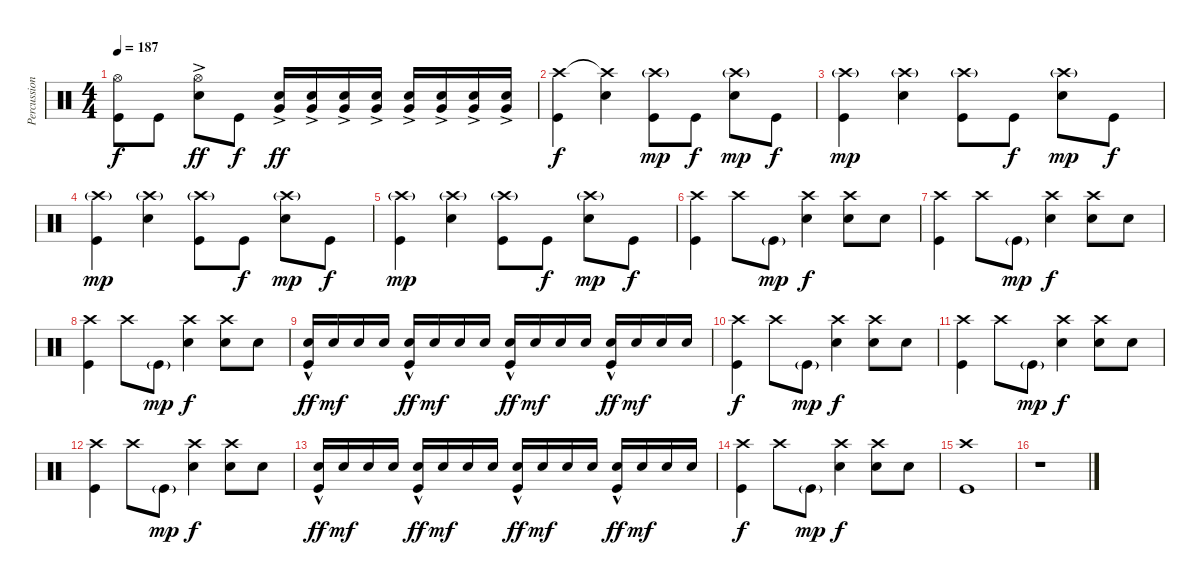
\track ("Percussions" "Percussion") {instrument percussion}
\staff {score}
\articulation defaults
\ts (4 4)
\tempo 187
\clef neutral
\ks c
("Kick (hit)" "Hi-Hat (open)").8{dy f} "Kick (hit)".8 ("Electric Snare (hit)"{ac} "Hi-Hat (open)").8{dy ff} "Kick (hit)".8{dy f} ("Very Low Tom (hit)"{ac} "Electric Snare (hit)").16{dy ff} ("Very Low Tom (hit)"{ac} "Electric Snare (hit)").16 ("Very Low Tom (hit)"{ac} "Electric Snare (hit)").16 ("Very Low Tom (hit)"{ac} "Electric Snare (hit)").16 ("Very Low Tom (hit)"{ac} "Electric Snare (hit)").16 ("Very Low Tom (hit)"{ac} "Electric Snare (hit)").16 ("Very Low Tom (hit)"{ac} "Electric Snare (hit)").16 ("Very Low Tom (hit)"{ac} "Electric Snare (hit)").16 |
("Kick (hit)" "Crash high (hit)").4{dy f} ("Electric Snare (hit)" "Crash high (hit)"{t}).4 ("Kick (hit)" "Crash high (hit)"{g}).8{dy mp} "Kick (hit)".8{dy f} ("Electric Snare (hit)" "Crash high (hit)"{g}).8{dy mp} "Kick (hit)".8{dy f} |
("Kick (hit)" "Crash high (hit)"{g}).4{dy mp} ("Electric Snare (hit)" "Crash high (hit)"{g}).4 ("Kick (hit)" "Crash high (hit)"{g}).8 "Kick (hit)".8{dy f} ("Electric Snare (hit)" "Crash high (hit)"{g}).8{dy mp} "Kick (hit)".8{dy f} |
("Kick (hit)" "Crash high (hit)"{g}).4{dy mp} ("Electric Snare (hit)" "Crash high (hit)"{g}).4 ("Kick (hit)" "Crash high (hit)"{g}).8 "Kick (hit)".8{dy f} ("Electric Snare (hit)" "Crash high (hit)"{g}).8{dy mp} "Kick (hit)".8{dy f} |
("Kick (hit)" "Crash high (hit)"{g}).4{dy mp} ("Electric Snare (hit)" "Crash high (hit)"{g}).4 ("Kick (hit)" "Crash high (hit)"{g}).8 "Kick (hit)".8{dy f} ("Electric Snare (hit)" "Crash high (hit)"{g}).8{dy mp} "Kick (hit)".8{dy f} |
("Kick (hit)" "Crash high (hit)").4 "Crash high (hit)".8 "Kick (hit)"{g}.8{dy mp} ("Electric Snare (hit)" "Crash high (hit)").4{dy f} ("Electric Snare (hit)" "Crash high (hit)").8 "Electric Snare (hit)".8 |
("Kick (hit)" "Crash high (hit)").4 "Crash high (hit)".8 "Kick (hit)"{g}.8{dy mp} ("Electric Snare (hit)" "Crash high (hit)").4{dy f} ("Electric Snare (hit)" "Crash high (hit)").8 "Electric Snare (hit)".8 |
("Kick (hit)" "Crash high (hit)").4 "Crash high (hit)".8 "Kick (hit)"{g}.8{dy mp} ("Electric Snare (hit)" "Crash high (hit)").4{dy f} ("Electric Snare (hit)" "Crash high (hit)").8 "Electric Snare (hit)".8 |
("Kick (hit)"{hac} "Electric Snare (hit)"{hac}).16{dy ff} "Electric Snare (hit)".16{dy mf} "Electric Snare (hit)".16 "Electric Snare (hit)".16 ("Kick (hit)"{hac} "Electric Snare (hit)"{hac}).16{dy ff} "Electric Snare (hit)".16{dy mf} "Electric Snare (hit)".16 "Electric Snare (hit)".16 ("Kick (hit)"{hac} "Electric Snare (hit)"{hac}).16{dy ff} "Electric Snare (hit)".16{dy mf} "Electric Snare (hit)".16 "Electric Snare (hit)".16 ("Kick (hit)"{hac} "Electric Snare (hit)"{hac}).16{dy ff} "Electric Snare (hit)".16{dy mf} "Electric Snare (hit)".16 "Electric Snare (hit)".16 |
("Kick (hit)" "Crash high (hit)").4{dy f} "Crash high (hit)".8 "Kick (hit)"{g}.8{dy mp} ("Electric Snare (hit)" "Crash high (hit)").4{dy f} ("Electric Snare (hit)" "Crash high (hit)").8 "Electric Snare (hit)".8 |
("Kick (hit)" "Crash high (hit)").4 "Crash high (hit)".8 "Kick (hit)"{g}.8{dy mp} ("Electric Snare (hit)" "Crash high (hit)").4{dy f} ("Electric Snare (hit)" "Crash high (hit)").8 "Electric Snare (hit)".8 |
("Kick (hit)" "Crash high (hit)").4 "Crash high (hit)".8 "Kick (hit)"{g}.8{dy mp} ("Electric Snare (hit)" "Crash high (hit)").4{dy f} ("Electric Snare (hit)" "Crash high (hit)").8 "Electric Snare (hit)".8 |
("Kick (hit)"{hac} "Electric Snare (hit)"{hac}).16{dy ff} "Electric Snare (hit)".16{dy mf} "Electric Snare (hit)".16 "Electric Snare (hit)".16 ("Kick (hit)"{hac} "Electric Snare (hit)"{hac}).16{dy ff} "Electric Snare (hit)".16{dy mf} "Electric Snare (hit)".16 "Electric Snare (hit)".16 ("Kick (hit)"{hac} "Electric Snare (hit)"{hac}).16{dy ff} "Electric Snare (hit)".16{dy mf} "Electric Snare (hit)".16 "Electric Snare (hit)".16 ("Kick (hit)"{hac} "Electric Snare (hit)"{hac}).16{dy ff} "Electric Snare (hit)".16{dy mf} "Electric Snare (hit)".16 "Electric Snare (hit)".16 |
("Kick (hit)" "Crash high (hit)").4{dy f} "Crash high (hit)".8 "Kick (hit)"{g}.8{dy mp} ("Electric Snare (hit)" "Crash high (hit)").4{dy f} ("Electric Snare (hit)" "Crash high (hit)").8 "Electric Snare (hit)".8 |
("Crash high (hit)" "Kick (hit)").1 |
r.1
